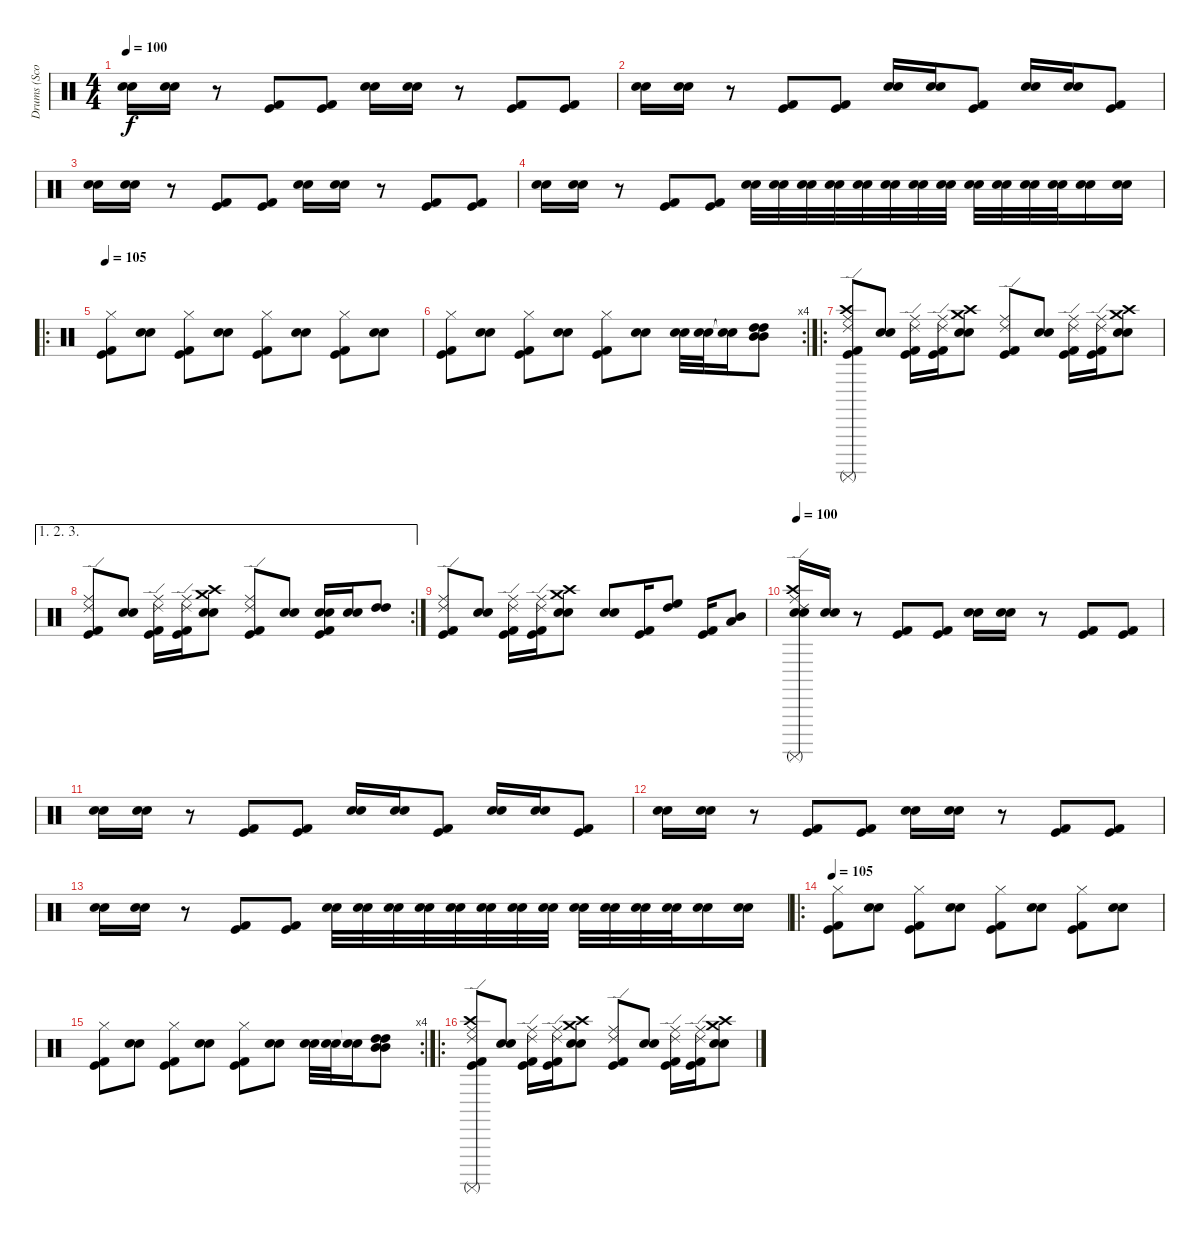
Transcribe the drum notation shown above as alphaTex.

\track ("Drums (Scott Abels)" "Drums (Sco") {instrument percussion}
\staff {score}
\articulation defaults
\ts (4 4)
\tempo 100
\clef neutral
\ks c
("Electric Snare (hit)" "Snare (hit) 2").16{dy f} ("Electric Snare (hit)" "Snare (hit) 2").16 r.8 ("Kick (hit)" "Kick (hit) 2").8 ("Kick (hit)" "Kick (hit) 2").8 ("Electric Snare (hit)" "Snare (hit) 2").16 ("Electric Snare (hit)" "Snare (hit) 2").16 r.8 ("Kick (hit)" "Kick (hit) 2").8 ("Kick (hit)" "Kick (hit) 2").8 |
("Electric Snare (hit)" "Snare (hit) 2").16 ("Electric Snare (hit)" "Snare (hit) 2").16 r.8 ("Kick (hit)" "Kick (hit) 2").8 ("Kick (hit)" "Kick (hit) 2").8 ("Electric Snare (hit)" "Snare (hit) 2").16 ("Electric Snare (hit)" "Snare (hit) 2").16 ("Kick (hit)" "Kick (hit) 2").8 ("Electric Snare (hit)" "Snare (hit) 2").16 ("Electric Snare (hit)" "Snare (hit) 2").16 ("Kick (hit)" "Kick (hit) 2").8 |
("Electric Snare (hit)" "Snare (hit) 2").16 ("Electric Snare (hit)" "Snare (hit) 2").16 r.8 ("Kick (hit)" "Kick (hit) 2").8 ("Kick (hit)" "Kick (hit) 2").8 ("Electric Snare (hit)" "Snare (hit) 2").16 ("Electric Snare (hit)" "Snare (hit) 2").16 r.8 ("Kick (hit)" "Kick (hit) 2").8 ("Kick (hit)" "Kick (hit) 2").8 |
("Electric Snare (hit)" "Snare (hit) 2").16 ("Electric Snare (hit)" "Snare (hit) 2").16 r.8 ("Kick (hit)" "Kick (hit) 2").8 ("Kick (hit)" "Kick (hit) 2").8 ("Electric Snare (hit)" "Snare (hit) 2").32 ("Electric Snare (hit)" "Snare (hit) 2").32 ("Electric Snare (hit)" "Snare (hit) 2").32 ("Electric Snare (hit)" "Snare (hit) 2").32 ("Electric Snare (hit)" "Snare (hit) 2").32 ("Electric Snare (hit)" "Snare (hit) 2").32 ("Electric Snare (hit)" "Snare (hit) 2").32 ("Electric Snare (hit)" "Snare (hit) 2").32 ("Electric Snare (hit)" "Snare (hit) 2").32 ("Electric Snare (hit)" "Snare (hit) 2").32 ("Electric Snare (hit)" "Snare (hit) 2").32 ("Electric Snare (hit)" "Snare (hit) 2").32 ("Electric Snare (hit)" "Snare (hit) 2").16 ("Electric Snare (hit)" "Snare (hit) 2").16 |
\ro
\tempo 105
("Hi-Hat (closed)" "Kick (hit)" "Kick (hit) 2").8 ("Snare (hit) 2" "Electric Snare (hit)").8 ("Hi-Hat (closed)" "Kick (hit)" "Kick (hit) 2").8 ("Snare (hit) 2" "Electric Snare (hit)").8 ("Hi-Hat (closed)" "Kick (hit)" "Kick (hit) 2").8 ("Snare (hit) 2" "Electric Snare (hit)").8 ("Hi-Hat (closed)" "Kick (hit)" "Kick (hit) 2").8 ("Snare (hit) 2" "Electric Snare (hit)").8 |
\rc 4
("Hi-Hat (closed)" "Kick (hit)" "Kick (hit) 2").8 ("Snare (hit) 2" "Electric Snare (hit)").8 ("Hi-Hat (closed)" "Kick (hit)" "Kick (hit) 2").8 ("Snare (hit) 2" "Electric Snare (hit)").8 ("Hi-Hat (closed)" "Kick (hit)" "Kick (hit) 2").8 ("Snare (hit) 2" "Electric Snare (hit)").8 ("Snare (hit) 2" "Electric Snare (hit)").32 ("Snare (hit) 2" "Electric Snare (hit)").32 ("Snare (hit)"{t} "Snare (hit)"{t}).16 ("Mid Tom (hit)" "Mid Tom (hit)" "High Tom (hit)" "High Tom (hit)").8 |
\ro
("Ride (middle)" "Ride (edge) 2" "Crash high (hit)" "Surdo (mute)" "Kick (hit)" "Kick (hit) 2").8 ("Electric Snare (hit)" "Snare (hit) 2").8 ("Ride (middle)" "Ride (edge) 2" "Kick (hit)" "Kick (hit) 2").16 ("Ride (middle)" "Ride (edge) 2" "Kick (hit)" "Kick (hit) 2").16 ("Crash high (hit)" "Crash medium (hit)" "Electric Snare (hit)" "Snare (hit) 2").8 ("Ride (middle)" "Ride (edge) 2" "Kick (hit)" "Kick (hit) 2").8 ("Electric Snare (hit)" "Snare (hit) 2").8 ("Ride (middle)" "Ride (edge) 2" "Kick (hit)" "Kick (hit) 2").16 ("Ride (middle)" "Ride (edge) 2" "Kick (hit)" "Kick (hit) 2").16 ("Crash high (hit)" "Crash medium (hit)" "Electric Snare (hit)" "Snare (hit) 2").8 |
\ae (1 2 3)
\rc 2
("Ride (middle)" "Ride (edge) 2" "Kick (hit)" "Kick (hit) 2").8 ("Electric Snare (hit)" "Snare (hit) 2").8 ("Ride (middle)" "Ride (edge) 2" "Kick (hit)" "Kick (hit) 2").16 ("Ride (middle)" "Ride (edge) 2" "Kick (hit)" "Kick (hit) 2").16 ("Crash high (hit)" "Crash medium (hit)" "Electric Snare (hit)" "Snare (hit) 2").8 ("Ride (middle)" "Ride (edge) 2" "Kick (hit)" "Kick (hit) 2").8 ("Electric Snare (hit)" "Snare (hit) 2").8 ("Electric Snare (hit)" "Snare (hit) 2" "Kick (hit)" "Kick (hit) 2").16 ("Electric Snare (hit)" "Snare (hit) 2").16 ("High Tom (hit)" "High Tom (hit)").8 |
("Ride (middle)" "Ride (edge) 2" "Kick (hit)" "Kick (hit) 2").8 ("Electric Snare (hit)" "Snare (hit) 2").8 ("Ride (middle)" "Ride (edge) 2" "Kick (hit)" "Kick (hit) 2").16 ("Ride (middle)" "Ride (edge) 2" "Kick (hit)" "Kick (hit) 2").16 ("Crash high (hit)" "Crash medium (hit)" "Electric Snare (hit)" "Snare (hit) 2").8 ("Electric Snare (hit)" "Snare (hit) 2").8 ("Kick (hit)" "Kick (hit) 2").16 ("High Tom (hit)" "High Floor Tom (hit)").8 ("Kick (hit)" "Kick (hit) 2").16 ("Mid Tom (hit)" "Low Tom (hit)").8 |
\tempo 100
("Ride (middle)" "Ride (edge) 2" "Electric Snare (hit)" "Snare (hit) 2" "Surdo (mute)" "Crash high (hit)").16 ("Electric Snare (hit)" "Snare (hit) 2").16 r.8 ("Kick (hit)" "Kick (hit) 2").8 ("Kick (hit)" "Kick (hit) 2").8 ("Electric Snare (hit)" "Snare (hit) 2").16 ("Electric Snare (hit)" "Snare (hit) 2").16 r.8 ("Kick (hit)" "Kick (hit) 2").8 ("Kick (hit)" "Kick (hit) 2").8 |
("Electric Snare (hit)" "Snare (hit) 2").16 ("Electric Snare (hit)" "Snare (hit) 2").16 r.8 ("Kick (hit)" "Kick (hit) 2").8 ("Kick (hit)" "Kick (hit) 2").8 ("Electric Snare (hit)" "Snare (hit) 2").16 ("Electric Snare (hit)" "Snare (hit) 2").16 ("Kick (hit)" "Kick (hit) 2").8 ("Electric Snare (hit)" "Snare (hit) 2").16 ("Electric Snare (hit)" "Snare (hit) 2").16 ("Kick (hit)" "Kick (hit) 2").8 |
("Electric Snare (hit)" "Snare (hit) 2").16 ("Electric Snare (hit)" "Snare (hit) 2").16 r.8 ("Kick (hit)" "Kick (hit) 2").8 ("Kick (hit)" "Kick (hit) 2").8 ("Electric Snare (hit)" "Snare (hit) 2").16 ("Electric Snare (hit)" "Snare (hit) 2").16 r.8 ("Kick (hit)" "Kick (hit) 2").8 ("Kick (hit)" "Kick (hit) 2").8 |
("Electric Snare (hit)" "Snare (hit) 2").16 ("Electric Snare (hit)" "Snare (hit) 2").16 r.8 ("Kick (hit)" "Kick (hit) 2").8 ("Kick (hit)" "Kick (hit) 2").8 ("Electric Snare (hit)" "Snare (hit) 2").32 ("Electric Snare (hit)" "Snare (hit) 2").32 ("Electric Snare (hit)" "Snare (hit) 2").32 ("Electric Snare (hit)" "Snare (hit) 2").32 ("Electric Snare (hit)" "Snare (hit) 2").32 ("Electric Snare (hit)" "Snare (hit) 2").32 ("Electric Snare (hit)" "Snare (hit) 2").32 ("Electric Snare (hit)" "Snare (hit) 2").32 ("Electric Snare (hit)" "Snare (hit) 2").32 ("Electric Snare (hit)" "Snare (hit) 2").32 ("Electric Snare (hit)" "Snare (hit) 2").32 ("Electric Snare (hit)" "Snare (hit) 2").32 ("Electric Snare (hit)" "Snare (hit) 2").16 ("Electric Snare (hit)" "Snare (hit) 2").16 |
\ro
\tempo 105
("Hi-Hat (closed)" "Kick (hit)" "Kick (hit) 2").8 ("Snare (hit) 2" "Electric Snare (hit)").8 ("Hi-Hat (closed)" "Kick (hit)" "Kick (hit) 2").8 ("Snare (hit) 2" "Electric Snare (hit)").8 ("Hi-Hat (closed)" "Kick (hit)" "Kick (hit) 2").8 ("Snare (hit) 2" "Electric Snare (hit)").8 ("Hi-Hat (closed)" "Kick (hit)" "Kick (hit) 2").8 ("Snare (hit) 2" "Electric Snare (hit)").8 |
\rc 4
("Hi-Hat (closed)" "Kick (hit)" "Kick (hit) 2").8 ("Snare (hit) 2" "Electric Snare (hit)").8 ("Hi-Hat (closed)" "Kick (hit)" "Kick (hit) 2").8 ("Snare (hit) 2" "Electric Snare (hit)").8 ("Hi-Hat (closed)" "Kick (hit)" "Kick (hit) 2").8 ("Snare (hit) 2" "Electric Snare (hit)").8 ("Snare (hit) 2" "Electric Snare (hit)").32 ("Snare (hit) 2" "Electric Snare (hit)").32 ("Snare (hit)"{t} "Snare (hit)"{t}).16 ("Mid Tom (hit)" "Mid Tom (hit)" "High Tom (hit)" "High Tom (hit)").8 |
\ro
("Ride (middle)" "Ride (edge) 2" "Crash high (hit)" "Surdo (mute)" "Kick (hit)" "Kick (hit) 2").8 ("Electric Snare (hit)" "Snare (hit) 2").8 ("Ride (middle)" "Ride (edge) 2" "Kick (hit)" "Kick (hit) 2").16 ("Ride (middle)" "Ride (edge) 2" "Kick (hit)" "Kick (hit) 2").16 ("Crash high (hit)" "Crash medium (hit)" "Electric Snare (hit)" "Snare (hit) 2").8 ("Ride (middle)" "Ride (edge) 2" "Kick (hit)" "Kick (hit) 2").8 ("Electric Snare (hit)" "Snare (hit) 2").8 ("Ride (middle)" "Ride (edge) 2" "Kick (hit)" "Kick (hit) 2").16 ("Ride (middle)" "Ride (edge) 2" "Kick (hit)" "Kick (hit) 2").16 ("Crash high (hit)" "Crash medium (hit)" "Electric Snare (hit)" "Snare (hit) 2").8
